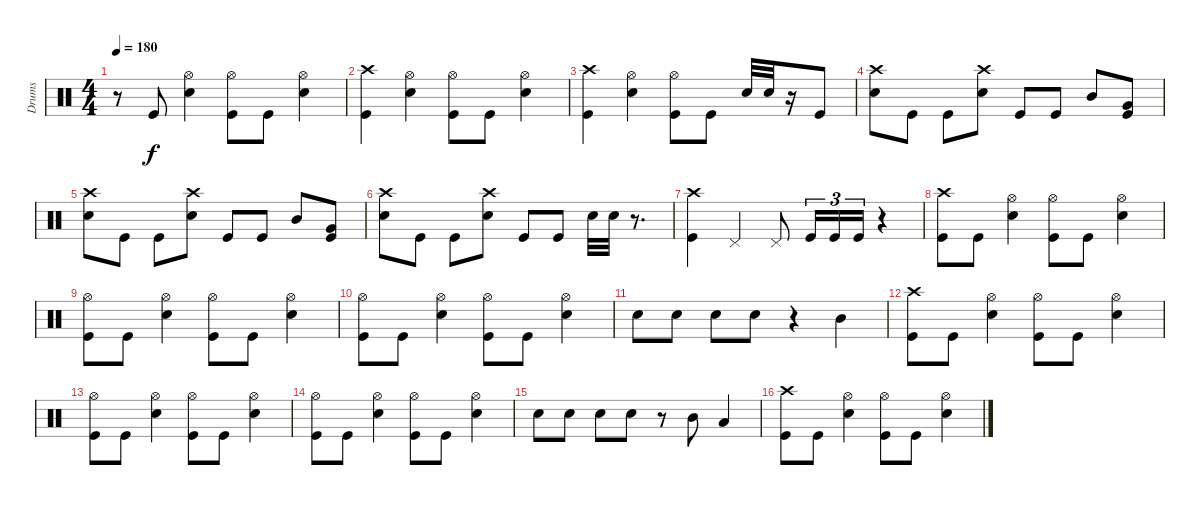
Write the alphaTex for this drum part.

\track ("Drums" "Drums") {instrument percussion}
\staff {score}
\articulation defaults
\ts (4 4)
\tempo 180
\clef neutral
\ks c
r.8{dy f} "Kick (hit)".8 ("Hi-Hat (open)" "Snare (hit) 2").4 ("Hi-Hat (open)" "Kick (hit)").8 "Kick (hit)".8 ("Hi-Hat (open)" "Snare (hit) 2").4 |
("Crash high (hit)" "Kick (hit)").4 ("Hi-Hat (open)" "Snare (hit) 2").4 ("Hi-Hat (open)" "Kick (hit)").8 "Kick (hit)".8 ("Hi-Hat (open)" "Snare (hit) 2").4 |
("Crash high (hit)" "Kick (hit)").4 ("Hi-Hat (open)" "Snare (hit) 2").4 ("Hi-Hat (open)" "Kick (hit)").8 "Kick (hit)".8 "Snare (hit) 2".32 "Snare (hit) 2".32 r.16 "Kick (hit)".8 |
("Crash high (hit)" "Snare (hit) 2").8 "Kick (hit)".8 "Kick (hit)".8 ("Crash high (hit)" "Snare (hit) 2").8 "Kick (hit)".8 "Kick (hit)".8 "Mid Tom (hit)".8 ("Kick (hit)" "Very Low Tom (hit)").8 |
("Crash high (hit)" "Snare (hit) 2").8 "Kick (hit)".8 "Kick (hit)".8 ("Crash high (hit)" "Snare (hit) 2").8 "Kick (hit)".8 "Kick (hit)".8 "Mid Tom (hit)".8 ("Kick (hit)" "Very Low Tom (hit)").8 |
("Crash high (hit)" "Snare (hit) 2").8 "Kick (hit)".8 "Kick (hit)".8 ("Crash high (hit)" "Snare (hit) 2").8 "Kick (hit)".8 "Kick (hit)".8 "Snare (hit) 2".32 "Snare (hit) 2".32 r.8{d} |
("Crash high (hit)" "Kick (hit)").4 "Pedal Hi-Hat (hit)".4 "Pedal Hi-Hat (hit)".8 "Kick (hit)".16{tu (3 2)} "Kick (hit)".16{tu (3 2)} "Kick (hit)".16{tu (3 2)} r.4 |
("Crash high (hit)" "Kick (hit)").8 "Kick (hit)".8 ("Hi-Hat (open)" "Snare (hit) 2").4 ("Hi-Hat (open)" "Kick (hit)").8 "Kick (hit)".8 ("Hi-Hat (open)" "Snare (hit) 2").4 |
("Hi-Hat (open)" "Kick (hit)").8 "Kick (hit)".8 ("Hi-Hat (open)" "Snare (hit) 2").4 ("Hi-Hat (open)" "Kick (hit)").8 "Kick (hit)".8 ("Hi-Hat (open)" "Snare (hit) 2").4 |
("Hi-Hat (open)" "Kick (hit)").8 "Kick (hit)".8 ("Hi-Hat (open)" "Snare (hit) 2").4 ("Hi-Hat (open)" "Kick (hit)").8 "Kick (hit)".8 ("Hi-Hat (open)" "Snare (hit) 2").4 |
"Snare (hit) 2".8 "Snare (hit) 2".8 "Snare (hit) 2".8 "Snare (hit) 2".8 r.4 "Mid Tom (hit)".4 |
("Crash high (hit)" "Kick (hit)").8 "Kick (hit)".8 ("Hi-Hat (open)" "Snare (hit) 2").4 ("Hi-Hat (open)" "Kick (hit)").8 "Kick (hit)".8 ("Hi-Hat (open)" "Snare (hit) 2").4 |
("Hi-Hat (open)" "Kick (hit)").8 "Kick (hit)".8 ("Hi-Hat (open)" "Snare (hit) 2").4 ("Hi-Hat (open)" "Kick (hit)").8 "Kick (hit)".8 ("Hi-Hat (open)" "Snare (hit) 2").4 |
("Hi-Hat (open)" "Kick (hit)").8 "Kick (hit)".8 ("Hi-Hat (open)" "Snare (hit) 2").4 ("Hi-Hat (open)" "Kick (hit)").8 "Kick (hit)".8 ("Hi-Hat (open)" "Snare (hit) 2").4 |
"Snare (hit) 2".8 "Snare (hit) 2".8 "Snare (hit) 2".8 "Snare (hit) 2".8 r.8 "Mid Tom (hit)".8 "Low Tom (hit)".4 |
("Crash high (hit)" "Kick (hit)").8 "Kick (hit)".8 ("Hi-Hat (open)" "Snare (hit) 2").4 ("Hi-Hat (open)" "Kick (hit)").8 "Kick (hit)".8 ("Hi-Hat (open)" "Snare (hit) 2").4
